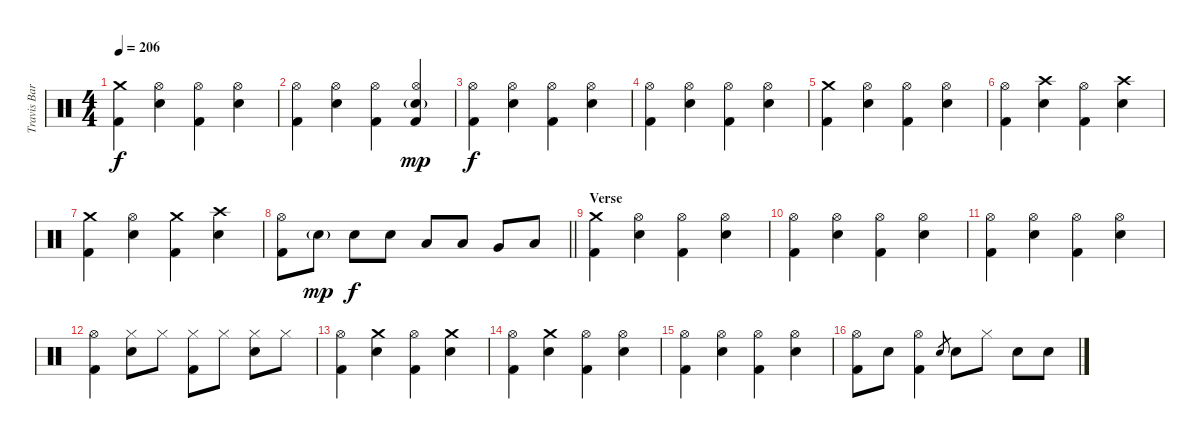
\track ("Travis Barker - Drums" "Travis Bar") {instrument percussion}
\staff {score}
\articulation defaults
\ts (4 4)
\tempo 206
\clef neutral
\ks c
("Crash medium (hit)" "Kick (hit) 2").4{dy f} ("Hi-Hat (open)" "Electric Snare (hit)").4 ("Hi-Hat (open)" "Kick (hit) 2").4 ("Hi-Hat (open)" "Electric Snare (hit)").4 |
("Hi-Hat (open)" "Kick (hit) 2").4 ("Hi-Hat (open)" "Electric Snare (hit)").4 ("Hi-Hat (open)" "Kick (hit) 2").4 ("Hi-Hat (open)" "Electric Snare (hit)"{g} "Kick (hit) 2").4{dy mp} |
("Hi-Hat (open)" "Kick (hit) 2").4{dy f} ("Hi-Hat (open)" "Electric Snare (hit)").4 ("Hi-Hat (open)" "Kick (hit) 2").4 ("Hi-Hat (open)" "Electric Snare (hit)").4 |
("Hi-Hat (open)" "Kick (hit) 2").4 ("Hi-Hat (open)" "Electric Snare (hit)").4 ("Hi-Hat (open)" "Kick (hit) 2").4 ("Hi-Hat (open)" "Electric Snare (hit)").4 |
("Crash medium (hit)" "Kick (hit) 2").4 ("Hi-Hat (open)" "Electric Snare (hit)").4 ("Hi-Hat (open)" "Kick (hit) 2").4 ("Hi-Hat (open)" "Electric Snare (hit)").4 |
("Hi-Hat (open)" "Kick (hit) 2").4 ("Crash high (hit)" "Electric Snare (hit)").4 ("Hi-Hat (open)" "Kick (hit) 2").4 ("Crash high (hit)" "Electric Snare (hit)").4 |
("Crash medium (hit)" "Kick (hit) 2").4 ("Hi-Hat (open)" "Electric Snare (hit)").4 ("Crash medium (hit)" "Kick (hit) 2").4 ("Crash high (hit)" "Electric Snare (hit)").4 |
\barLineRight lightlight
("Hi-Hat (open)" "Kick (hit) 2").8 "Electric Snare (hit)"{g}.8{dy mp} "Electric Snare (hit)".8{dy f} "Electric Snare (hit)".8 "Low Tom (hit)".8 "Low Tom (hit)".8 "Very Low Tom (hit)".8 "Low Floor Tom (hit)".8 |
\section ("" "Verse")
("Crash medium (hit)" "Kick (hit) 2").4 ("Hi-Hat (open)" "Electric Snare (hit)").4 ("Hi-Hat (open)" "Kick (hit) 2").4 ("Hi-Hat (open)" "Electric Snare (hit)").4 |
("Hi-Hat (open)" "Kick (hit) 2").4 ("Hi-Hat (open)" "Electric Snare (hit)").4 ("Hi-Hat (open)" "Kick (hit) 2").4 ("Hi-Hat (open)" "Electric Snare (hit)").4 |
("Hi-Hat (open)" "Kick (hit) 2").4 ("Hi-Hat (open)" "Electric Snare (hit)").4 ("Hi-Hat (open)" "Kick (hit) 2").4 ("Hi-Hat (open)" "Electric Snare (hit)").4 |
("Hi-Hat (open)" "Kick (hit) 2").4 ("Hi-Hat (closed)" "Electric Snare (hit)").8 "Hi-Hat (closed)".8 ("Hi-Hat (closed)" "Kick (hit) 2").8 "Hi-Hat (closed)".8 ("Hi-Hat (closed)" "Electric Snare (hit)").8 "Hi-Hat (closed)".8 |
("Hi-Hat (open)" "Kick (hit) 2").4 ("Crash medium (hit)" "Electric Snare (hit)").4 ("Hi-Hat (open)" "Kick (hit) 2").4 ("Crash medium (hit)" "Electric Snare (hit)").4 |
("Hi-Hat (open)" "Kick (hit) 2").4 ("Crash medium (hit)" "Electric Snare (hit)").4 ("Hi-Hat (open)" "Kick (hit) 2").4 ("Hi-Hat (open)" "Electric Snare (hit)").4 |
("Hi-Hat (open)" "Kick (hit) 2").4 ("Hi-Hat (open)" "Electric Snare (hit)").4 ("Hi-Hat (open)" "Kick (hit) 2").4 ("Hi-Hat (open)" "Electric Snare (hit)").4 |
("Hi-Hat (open)" "Kick (hit) 2").8 "Electric Snare (hit)".8 ("Hi-Hat (open)" "Kick (hit) 2").4 "Electric Snare (hit)".8{gr} "Electric Snare (hit)".8 "Hi-Hat (closed)".8 "Electric Snare (hit)".8 "Electric Snare (hit)".8
